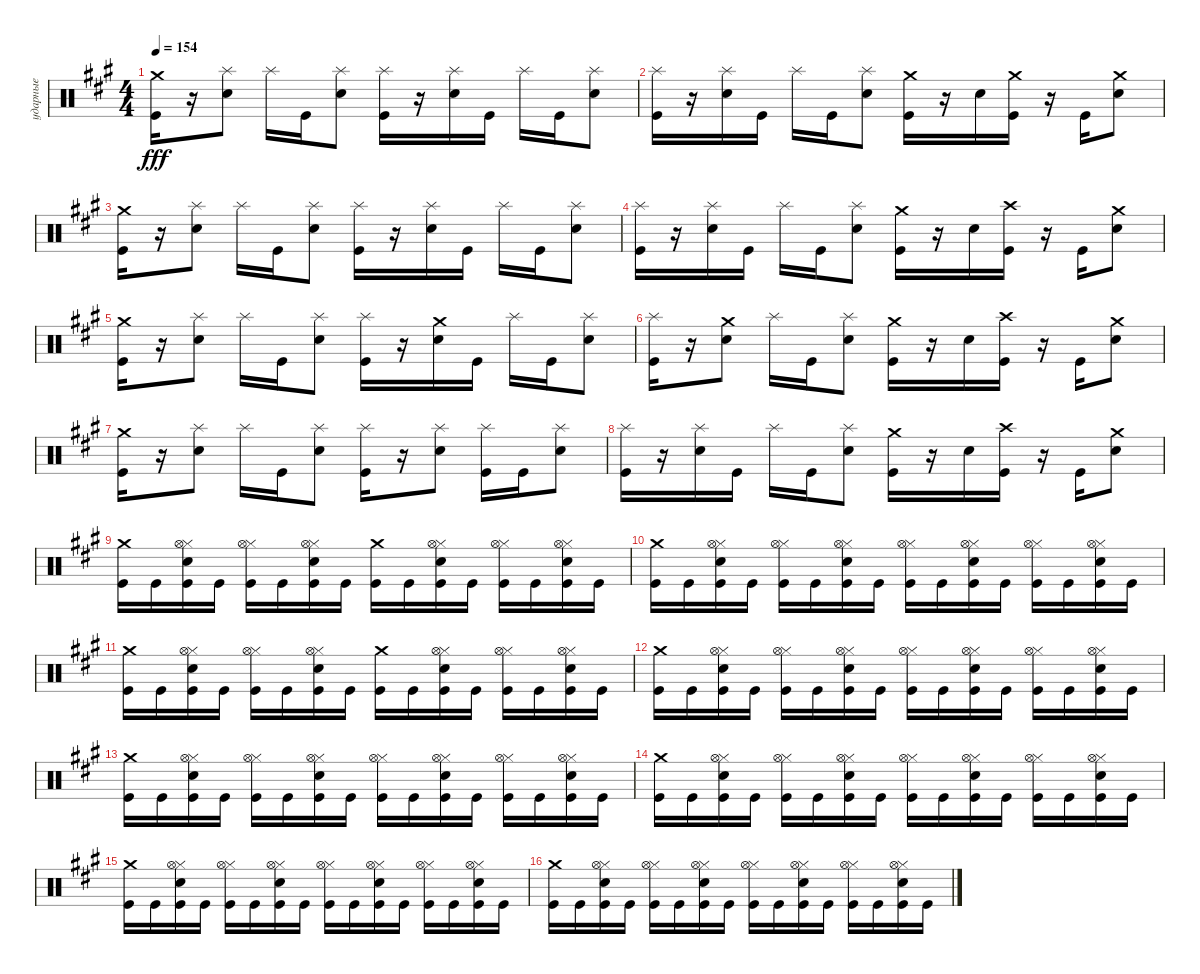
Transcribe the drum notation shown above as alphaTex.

\track ("ударные" "ударные") {instrument percussion}
\staff {score}
\articulation defaults
\ts (4 4)
\tempo 154
\clef neutral
\ks f#minor
("Kick (hit)" "Crash medium (hit)").16{dy fff} r.16 ("Snare (hit) 2" "Splash (hit)").8 "Splash (hit)".16 "Kick (hit)".16 ("Snare (hit) 2" "Splash (hit)").8 ("Kick (hit)" "Splash (hit)").16 r.16 ("Snare (hit) 2" "Splash (hit)").16 "Kick (hit)".16 "Splash (hit)".16 "Kick (hit)".16 ("Snare (hit) 2" "Splash (hit)").8 |
("Kick (hit)" "Splash (hit)").16 r.16 ("Snare (hit) 2" "Splash (hit)").16 "Kick (hit)".16 "Splash (hit)".16 "Kick (hit)".16 ("Snare (hit) 2" "Splash (hit)").8 ("Crash medium (hit)" "Kick (hit)").16 r.16 "Snare (hit) 2".16 ("Crash medium (hit)" "Kick (hit)").16 r.16 "Kick (hit)".16 ("Crash medium (hit)" "Snare (hit) 2").8 |
("Kick (hit)" "Crash medium (hit)").16 r.16 ("Snare (hit) 2" "Splash (hit)").8 "Splash (hit)".16 "Kick (hit)".16 ("Snare (hit) 2" "Splash (hit)").8 ("Kick (hit)" "Splash (hit)").16 r.16 ("Snare (hit) 2" "Splash (hit)").16 "Kick (hit)".16 "Splash (hit)".16 "Kick (hit)".16 ("Snare (hit) 2" "Splash (hit)").8 |
("Kick (hit)" "Splash (hit)").16 r.16 ("Snare (hit) 2" "Splash (hit)").16 "Kick (hit)".16 "Splash (hit)".16 "Kick (hit)".16 ("Snare (hit) 2" "Splash (hit)").8 ("Crash medium (hit)" "Kick (hit)").16 r.16 "Snare (hit) 2".16 ("Kick (hit)" "Crash high (hit)").16 r.16 "Kick (hit)".16 ("Crash medium (hit)" "Snare (hit) 2").8 |
("Kick (hit)" "Crash medium (hit)").16 r.16 ("Snare (hit) 2" "Splash (hit)").8 "Splash (hit)".16 "Kick (hit)".16 ("Snare (hit) 2" "Splash (hit)").8 ("Kick (hit)" "Splash (hit)").16 r.16 ("Crash medium (hit)" "Snare (hit) 2").16 "Kick (hit)".16 "Splash (hit)".16 "Kick (hit)".16 ("Snare (hit) 2" "Splash (hit)").8 |
("Kick (hit)" "Splash (hit)").16 r.16 ("Crash medium (hit)" "Snare (hit) 2").8 "Splash (hit)".16 "Kick (hit)".16 ("Snare (hit) 2" "Splash (hit)").8 ("Crash medium (hit)" "Kick (hit)").16 r.16 "Snare (hit) 2".16 ("Kick (hit)" "Crash high (hit)").16 r.16 "Kick (hit)".16 ("Crash medium (hit)" "Snare (hit) 2").8 |
("Kick (hit)" "Crash medium (hit)").16 r.16 ("Snare (hit) 2" "Splash (hit)").8 "Splash (hit)".16 "Kick (hit)".16 ("Snare (hit) 2" "Splash (hit)").8 ("Kick (hit)" "Splash (hit)").16 r.16 ("Snare (hit) 2" "Splash (hit)").8 ("Kick (hit)" "Splash (hit)").16 "Kick (hit)".16 ("Snare (hit) 2" "Splash (hit)").8 |
("Kick (hit)" "Splash (hit)").16 r.16 ("Snare (hit) 2" "Splash (hit)").16 "Kick (hit)".16 "Splash (hit)".16 "Kick (hit)".16 ("Snare (hit) 2" "Splash (hit)").8 ("Crash medium (hit)" "Kick (hit)").16 r.16 "Snare (hit) 2".16 ("Kick (hit)" "Crash high (hit)").16 r.16 "Kick (hit)".16 ("Crash medium (hit)" "Snare (hit) 2").8 |
("Crash medium (hit)" "Kick (hit)").16 "Kick (hit)".16 ("Snare (hit) 2" "Hi-Hat (closed)" "Kick (hit)" "Hi-Hat (open)").16 "Kick (hit)".16 ("Hi-Hat (closed)" "Kick (hit)" "Hi-Hat (open)").16 "Kick (hit)".16 ("Snare (hit) 2" "Hi-Hat (closed)" "Kick (hit)" "Hi-Hat (open)").16 "Kick (hit)".16 ("Crash medium (hit)" "Kick (hit)").16 "Kick (hit)".16 ("Snare (hit) 2" "Hi-Hat (closed)" "Kick (hit)" "Hi-Hat (open)").16 "Kick (hit)".16 ("Hi-Hat (closed)" "Kick (hit)" "Hi-Hat (open)").16 "Kick (hit)".16 ("Snare (hit) 2" "Hi-Hat (closed)" "Kick (hit)" "Hi-Hat (open)").16 "Kick (hit)".16 |
("Crash medium (hit)" "Kick (hit)").16 "Kick (hit)".16 ("Snare (hit) 2" "Hi-Hat (closed)" "Kick (hit)" "Hi-Hat (open)").16 "Kick (hit)".16 ("Hi-Hat (closed)" "Kick (hit)" "Hi-Hat (open)").16 "Kick (hit)".16 ("Snare (hit) 2" "Hi-Hat (closed)" "Kick (hit)" "Hi-Hat (open)").16 "Kick (hit)".16 ("Hi-Hat (closed)" "Kick (hit)" "Hi-Hat (open)").16 "Kick (hit)".16 ("Snare (hit) 2" "Hi-Hat (closed)" "Kick (hit)" "Hi-Hat (open)").16 "Kick (hit)".16 ("Hi-Hat (closed)" "Kick (hit)" "Hi-Hat (open)").16 "Kick (hit)".16 ("Snare (hit) 2" "Hi-Hat (closed)" "Kick (hit)" "Hi-Hat (open)").16 "Kick (hit)".16 |
("Crash medium (hit)" "Kick (hit)").16 "Kick (hit)".16 ("Snare (hit) 2" "Hi-Hat (closed)" "Kick (hit)" "Hi-Hat (open)").16 "Kick (hit)".16 ("Hi-Hat (closed)" "Kick (hit)" "Hi-Hat (open)").16 "Kick (hit)".16 ("Snare (hit) 2" "Hi-Hat (closed)" "Kick (hit)" "Hi-Hat (open)").16 "Kick (hit)".16 ("Crash medium (hit)" "Kick (hit)").16 "Kick (hit)".16 ("Snare (hit) 2" "Hi-Hat (closed)" "Kick (hit)" "Hi-Hat (open)").16 "Kick (hit)".16 ("Hi-Hat (closed)" "Kick (hit)" "Hi-Hat (open)").16 "Kick (hit)".16 ("Snare (hit) 2" "Hi-Hat (closed)" "Kick (hit)" "Hi-Hat (open)").16 "Kick (hit)".16 |
("Crash medium (hit)" "Kick (hit)").16 "Kick (hit)".16 ("Snare (hit) 2" "Hi-Hat (closed)" "Kick (hit)" "Hi-Hat (open)").16 "Kick (hit)".16 ("Hi-Hat (closed)" "Kick (hit)" "Hi-Hat (open)").16 "Kick (hit)".16 ("Snare (hit) 2" "Hi-Hat (closed)" "Kick (hit)" "Hi-Hat (open)").16 "Kick (hit)".16 ("Hi-Hat (closed)" "Kick (hit)" "Hi-Hat (open)").16 "Kick (hit)".16 ("Snare (hit) 2" "Hi-Hat (closed)" "Kick (hit)" "Hi-Hat (open)").16 "Kick (hit)".16 ("Hi-Hat (closed)" "Kick (hit)" "Hi-Hat (open)").16 "Kick (hit)".16 ("Snare (hit) 2" "Hi-Hat (closed)" "Kick (hit)" "Hi-Hat (open)").16 "Kick (hit)".16 |
("Crash medium (hit)" "Kick (hit)").16 "Kick (hit)".16 ("Snare (hit) 2" "Hi-Hat (closed)" "Kick (hit)" "Hi-Hat (open)").16 "Kick (hit)".16 ("Hi-Hat (closed)" "Kick (hit)" "Hi-Hat (open)").16 "Kick (hit)".16 ("Snare (hit) 2" "Hi-Hat (closed)" "Kick (hit)" "Hi-Hat (open)").16 "Kick (hit)".16 ("Hi-Hat (closed)" "Kick (hit)" "Hi-Hat (open)").16 "Kick (hit)".16 ("Snare (hit) 2" "Hi-Hat (closed)" "Kick (hit)" "Hi-Hat (open)").16 "Kick (hit)".16 ("Hi-Hat (closed)" "Kick (hit)" "Hi-Hat (open)").16 "Kick (hit)".16 ("Snare (hit) 2" "Hi-Hat (closed)" "Kick (hit)" "Hi-Hat (open)").16 "Kick (hit)".16 |
("Crash medium (hit)" "Kick (hit)").16 "Kick (hit)".16 ("Snare (hit) 2" "Hi-Hat (closed)" "Kick (hit)" "Hi-Hat (open)").16 "Kick (hit)".16 ("Hi-Hat (closed)" "Kick (hit)" "Hi-Hat (open)").16 "Kick (hit)".16 ("Snare (hit) 2" "Hi-Hat (closed)" "Kick (hit)" "Hi-Hat (open)").16 "Kick (hit)".16 ("Hi-Hat (closed)" "Kick (hit)" "Hi-Hat (open)").16 "Kick (hit)".16 ("Snare (hit) 2" "Hi-Hat (closed)" "Kick (hit)" "Hi-Hat (open)").16 "Kick (hit)".16 ("Hi-Hat (closed)" "Kick (hit)" "Hi-Hat (open)").16 "Kick (hit)".16 ("Snare (hit) 2" "Hi-Hat (closed)" "Kick (hit)" "Hi-Hat (open)").16 "Kick (hit)".16 |
("Crash medium (hit)" "Kick (hit)").16 "Kick (hit)".16 ("Snare (hit) 2" "Hi-Hat (closed)" "Kick (hit)" "Hi-Hat (open)").16 "Kick (hit)".16 ("Hi-Hat (closed)" "Kick (hit)" "Hi-Hat (open)").16 "Kick (hit)".16 ("Snare (hit) 2" "Hi-Hat (closed)" "Kick (hit)" "Hi-Hat (open)").16 "Kick (hit)".16 ("Hi-Hat (closed)" "Kick (hit)" "Hi-Hat (open)").16 "Kick (hit)".16 ("Snare (hit) 2" "Hi-Hat (closed)" "Kick (hit)" "Hi-Hat (open)").16 "Kick (hit)".16 ("Hi-Hat (closed)" "Kick (hit)" "Hi-Hat (open)").16 "Kick (hit)".16 ("Snare (hit) 2" "Hi-Hat (closed)" "Kick (hit)" "Hi-Hat (open)").16 "Kick (hit)".16 |
("Crash medium (hit)" "Kick (hit)").16 "Kick (hit)".16 ("Snare (hit) 2" "Hi-Hat (closed)" "Kick (hit)" "Hi-Hat (open)").16 "Kick (hit)".16 ("Hi-Hat (closed)" "Kick (hit)" "Hi-Hat (open)").16 "Kick (hit)".16 ("Snare (hit) 2" "Hi-Hat (closed)" "Kick (hit)" "Hi-Hat (open)").16 "Kick (hit)".16 ("Hi-Hat (closed)" "Kick (hit)" "Hi-Hat (open)").16 "Kick (hit)".16 ("Snare (hit) 2" "Hi-Hat (closed)" "Kick (hit)" "Hi-Hat (open)").16 "Kick (hit)".16 ("Hi-Hat (closed)" "Kick (hit)" "Hi-Hat (open)").16 "Kick (hit)".16 ("Snare (hit) 2" "Hi-Hat (closed)" "Kick (hit)" "Hi-Hat (open)").16 "Kick (hit)".16
